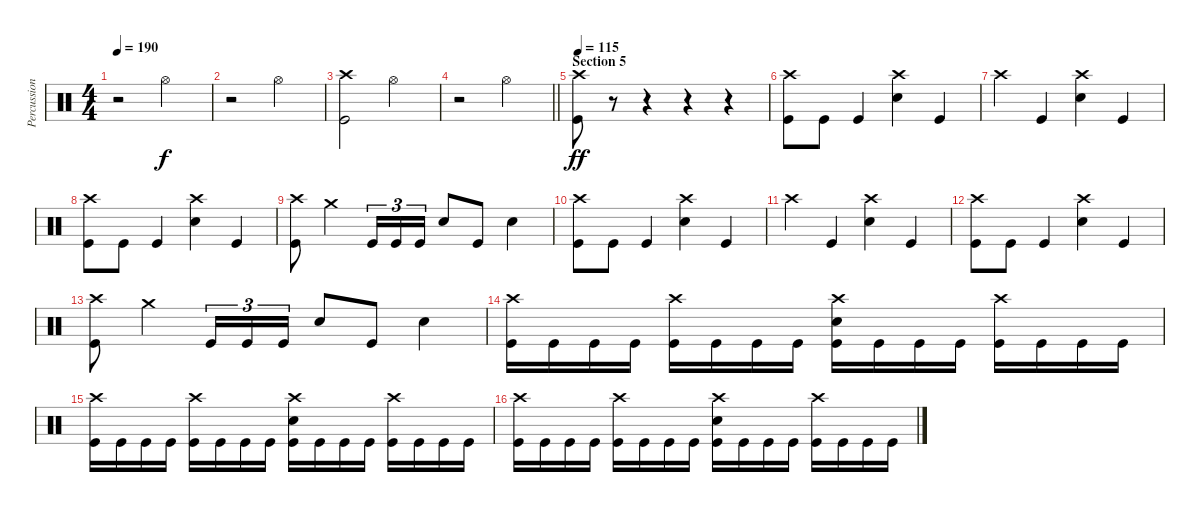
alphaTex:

\track ("Percussion" "Percussion") {instrument percussion}
\staff {score}
\articulation defaults
\ts (4 4)
\tempo 190
\clef neutral
\ks c
r.2{dy f} "Hi-Hat (open)".2 |
r.2 "Hi-Hat (open)".2 |
("Crash high (hit)" "Kick (hit)").2 "Hi-Hat (open)".2 |
\barLineRight lightlight
r.2 "Hi-Hat (open)".2 |
\section ("" "Section 5")
\tempo 115
("Crash high (hit)" "Kick (hit)").8{dy ff} r.8 r.4 r.4 r.4 |
("Crash high (hit)" "Kick (hit)").8 "Kick (hit)".8 "Kick (hit)".4 ("Snare (hit) 2" "Crash high (hit)").4 "Kick (hit)".4 |
"Crash high (hit)".4 "Kick (hit)".4 ("Crash high (hit)" "Snare (hit) 2").4 "Kick (hit)".4 |
("Crash high (hit)" "Kick (hit)").8 "Kick (hit)".8 "Kick (hit)".4 ("Snare (hit) 2" "Crash high (hit)").4 "Kick (hit)".4 |
("Crash high (hit)" "Kick (hit)").8 "Crash medium (hit)".4 "Kick (hit)".16{tu (3 2)} "Kick (hit)".16{tu (3 2)} "Kick (hit)".16{tu (3 2)} "Snare (hit) 2".8 "Kick (hit)".8 "Snare (hit) 2".4 |
("Crash high (hit)" "Kick (hit)").8 "Kick (hit)".8 "Kick (hit)".4 ("Snare (hit) 2" "Crash high (hit)").4 "Kick (hit)".4 |
"Crash high (hit)".4 "Kick (hit)".4 ("Crash high (hit)" "Snare (hit) 2").4 "Kick (hit)".4 |
("Crash high (hit)" "Kick (hit)").8 "Kick (hit)".8 "Kick (hit)".4 ("Snare (hit) 2" "Crash high (hit)").4 "Kick (hit)".4 |
("Crash high (hit)" "Kick (hit)").8 "Crash medium (hit)".4 "Kick (hit)".16{tu (3 2)} "Kick (hit)".16{tu (3 2)} "Kick (hit)".16{tu (3 2)} "Snare (hit) 2".8 "Kick (hit)".8 "Snare (hit) 2".4 |
("Crash high (hit)" "Kick (hit)").16 "Kick (hit)".16 "Kick (hit)".16 "Kick (hit)".16 ("Crash high (hit)" "Kick (hit)").16 "Kick (hit)".16 "Kick (hit)".16 "Kick (hit)".16 ("Snare (hit) 2" "Crash high (hit)" "Kick (hit)").16 "Kick (hit)".16 "Kick (hit)".16 "Kick (hit)".16 ("Crash high (hit)" "Kick (hit)").16 "Kick (hit)".16 "Kick (hit)".16 "Kick (hit)".16 |
("Crash high (hit)" "Kick (hit)").16 "Kick (hit)".16 "Kick (hit)".16 "Kick (hit)".16 ("Crash high (hit)" "Kick (hit)").16 "Kick (hit)".16 "Kick (hit)".16 "Kick (hit)".16 ("Snare (hit) 2" "Crash high (hit)" "Kick (hit)").16 "Kick (hit)".16 "Kick (hit)".16 "Kick (hit)".16 ("Crash high (hit)" "Kick (hit)").16 "Kick (hit)".16 "Kick (hit)".16 "Kick (hit)".16 |
("Crash high (hit)" "Kick (hit)").16 "Kick (hit)".16 "Kick (hit)".16 "Kick (hit)".16 ("Crash high (hit)" "Kick (hit)").16 "Kick (hit)".16 "Kick (hit)".16 "Kick (hit)".16 ("Snare (hit) 2" "Crash high (hit)" "Kick (hit)").16 "Kick (hit)".16 "Kick (hit)".16 "Kick (hit)".16 ("Crash high (hit)" "Kick (hit)").16 "Kick (hit)".16 "Kick (hit)".16 "Kick (hit)".16
